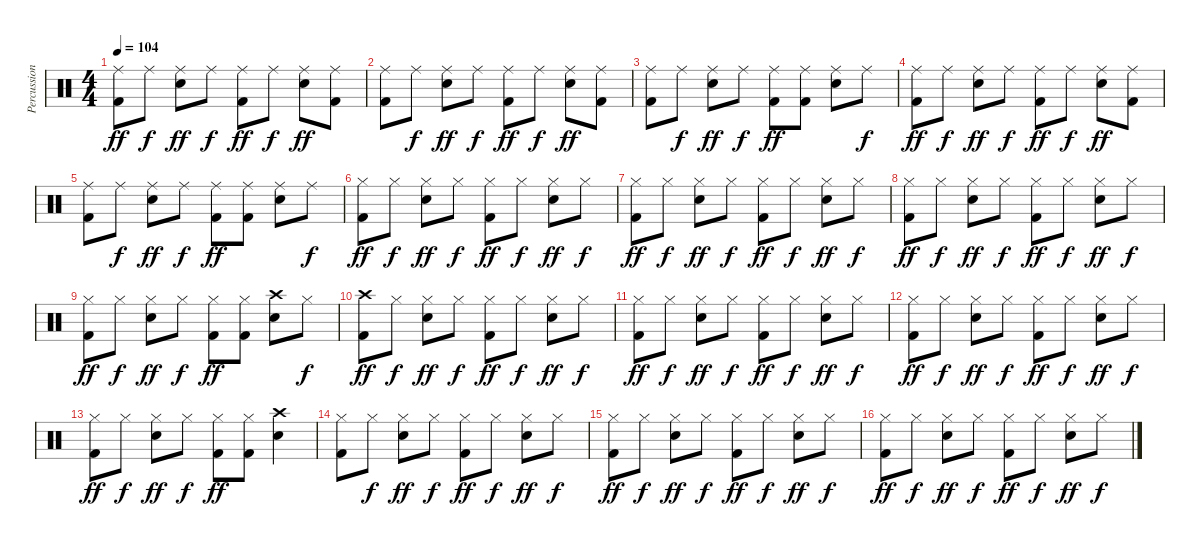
\track ("Percussion" "Percussion") {instrument percussion}
\staff {score}
\articulation defaults
\ts (4 4)
\tempo 104
\clef neutral
\ks c
("Ride (middle)" "Kick (hit) 2").8{dy ff} "Ride (middle)".8{dy f} ("Ride (middle)" "Snare (hit) 2").8{dy ff} "Ride (middle)".8{dy f} ("Ride (middle)" "Kick (hit) 2").8{dy ff} "Ride (middle)".8{dy f} ("Ride (middle)" "Snare (hit) 2").8{dy ff} ("Ride (middle)" "Kick (hit) 2").8 |
("Ride (middle)" "Kick (hit) 2").8 "Ride (middle)".8{dy f} ("Ride (middle)" "Snare (hit) 2").8{dy ff} "Ride (middle)".8{dy f} ("Ride (middle)" "Kick (hit) 2").8{dy ff} "Ride (middle)".8{dy f} ("Ride (middle)" "Snare (hit) 2").8{dy ff} ("Ride (middle)" "Kick (hit) 2").8 |
("Ride (middle)" "Kick (hit) 2").8 "Ride (middle)".8{dy f} ("Ride (middle)" "Snare (hit) 2").8{dy ff} "Ride (middle)".8{dy f} ("Ride (middle)" "Kick (hit) 2").8{dy ff} ("Ride (middle)" "Kick (hit) 2").8 ("Ride (middle)" "Snare (hit) 2").8 "Ride (middle)".8{dy f} |
("Ride (middle)" "Kick (hit) 2").8{dy ff} "Ride (middle)".8{dy f} ("Ride (middle)" "Snare (hit) 2").8{dy ff} "Ride (middle)".8{dy f} ("Ride (middle)" "Kick (hit) 2").8{dy ff} "Ride (middle)".8{dy f} ("Ride (middle)" "Snare (hit) 2").8{dy ff} ("Ride (middle)" "Kick (hit) 2").8 |
("Ride (middle)" "Kick (hit) 2").8 "Ride (middle)".8{dy f} ("Ride (middle)" "Snare (hit) 2").8{dy ff} "Ride (middle)".8{dy f} ("Ride (middle)" "Kick (hit) 2").8{dy ff} ("Ride (middle)" "Kick (hit) 2").8 ("Ride (middle)" "Snare (hit) 2").8 "Ride (middle)".8{dy f} |
("Hi-Hat (closed)" "Kick (hit) 2").8{dy ff} "Hi-Hat (closed)".8{dy f} ("Hi-Hat (closed)" "Snare (hit) 2").8{dy ff} "Hi-Hat (closed)".8{dy f} ("Hi-Hat (closed)" "Kick (hit) 2").8{dy ff} "Hi-Hat (closed)".8{dy f} ("Hi-Hat (closed)" "Snare (hit) 2").8{dy ff} "Hi-Hat (closed)".8{dy f} |
("Hi-Hat (closed)" "Kick (hit) 2").8{dy ff} "Hi-Hat (closed)".8{dy f} ("Hi-Hat (closed)" "Snare (hit) 2").8{dy ff} "Hi-Hat (closed)".8{dy f} ("Hi-Hat (closed)" "Kick (hit) 2").8{dy ff} "Hi-Hat (closed)".8{dy f} ("Hi-Hat (closed)" "Snare (hit) 2").8{dy ff} "Hi-Hat (closed)".8{dy f} |
("Hi-Hat (closed)" "Kick (hit) 2").8{dy ff} "Hi-Hat (closed)".8{dy f} ("Hi-Hat (closed)" "Snare (hit) 2").8{dy ff} "Hi-Hat (closed)".8{dy f} ("Hi-Hat (closed)" "Kick (hit) 2").8{dy ff} "Hi-Hat (closed)".8{dy f} ("Hi-Hat (closed)" "Snare (hit) 2").8{dy ff} "Hi-Hat (closed)".8{dy f} |
("Hi-Hat (closed)" "Kick (hit) 2").8{dy ff} "Hi-Hat (closed)".8{dy f} ("Hi-Hat (closed)" "Snare (hit) 2").8{dy ff} "Hi-Hat (closed)".8{dy f} ("Hi-Hat (closed)" "Kick (hit) 2").8{dy ff} ("Hi-Hat (closed)" "Kick (hit) 2").8 ("Crash high (hit)" "Snare (hit) 2").8 "Hi-Hat (closed)".8{dy f} |
("Crash high (hit)" "Kick (hit) 2").8{dy ff} "Hi-Hat (closed)".8{dy f} ("Hi-Hat (closed)" "Snare (hit) 2").8{dy ff} "Hi-Hat (closed)".8{dy f} ("Hi-Hat (closed)" "Kick (hit) 2").8{dy ff} "Hi-Hat (closed)".8{dy f} ("Hi-Hat (closed)" "Snare (hit) 2").8{dy ff} "Hi-Hat (closed)".8{dy f} |
("Hi-Hat (closed)" "Kick (hit) 2").8{dy ff} "Hi-Hat (closed)".8{dy f} ("Hi-Hat (closed)" "Snare (hit) 2").8{dy ff} "Hi-Hat (closed)".8{dy f} ("Hi-Hat (closed)" "Kick (hit) 2").8{dy ff} "Hi-Hat (closed)".8{dy f} ("Hi-Hat (closed)" "Snare (hit) 2").8{dy ff} "Hi-Hat (closed)".8{dy f} |
("Hi-Hat (closed)" "Kick (hit) 2").8{dy ff} "Hi-Hat (closed)".8{dy f} ("Hi-Hat (closed)" "Snare (hit) 2").8{dy ff} "Hi-Hat (closed)".8{dy f} ("Hi-Hat (closed)" "Kick (hit) 2").8{dy ff} "Hi-Hat (closed)".8{dy f} ("Hi-Hat (closed)" "Snare (hit) 2").8{dy ff} "Hi-Hat (closed)".8{dy f} |
("Hi-Hat (closed)" "Kick (hit) 2").8{dy ff} "Hi-Hat (closed)".8{dy f} ("Hi-Hat (closed)" "Snare (hit) 2").8{dy ff} "Hi-Hat (closed)".8{dy f} ("Hi-Hat (closed)" "Kick (hit) 2").8{dy ff} ("Hi-Hat (closed)" "Kick (hit) 2").8 ("Crash high (hit)" "Snare (hit) 2").4 |
("Hi-Hat (closed)" "Kick (hit) 2").8 "Hi-Hat (closed)".8{dy f} ("Hi-Hat (closed)" "Snare (hit) 2").8{dy ff} "Hi-Hat (closed)".8{dy f} ("Hi-Hat (closed)" "Kick (hit) 2").8{dy ff} "Hi-Hat (closed)".8{dy f} ("Hi-Hat (closed)" "Snare (hit) 2").8{dy ff} "Hi-Hat (closed)".8{dy f} |
("Hi-Hat (closed)" "Kick (hit) 2").8{dy ff} "Hi-Hat (closed)".8{dy f} ("Hi-Hat (closed)" "Snare (hit) 2").8{dy ff} "Hi-Hat (closed)".8{dy f} ("Hi-Hat (closed)" "Kick (hit) 2").8{dy ff} "Hi-Hat (closed)".8{dy f} ("Hi-Hat (closed)" "Snare (hit) 2").8{dy ff} "Hi-Hat (closed)".8{dy f} |
("Hi-Hat (closed)" "Kick (hit) 2").8{dy ff} "Hi-Hat (closed)".8{dy f} ("Hi-Hat (closed)" "Snare (hit) 2").8{dy ff} "Hi-Hat (closed)".8{dy f} ("Hi-Hat (closed)" "Kick (hit) 2").8{dy ff} "Hi-Hat (closed)".8{dy f} ("Hi-Hat (closed)" "Snare (hit) 2").8{dy ff} "Hi-Hat (closed)".8{dy f}
